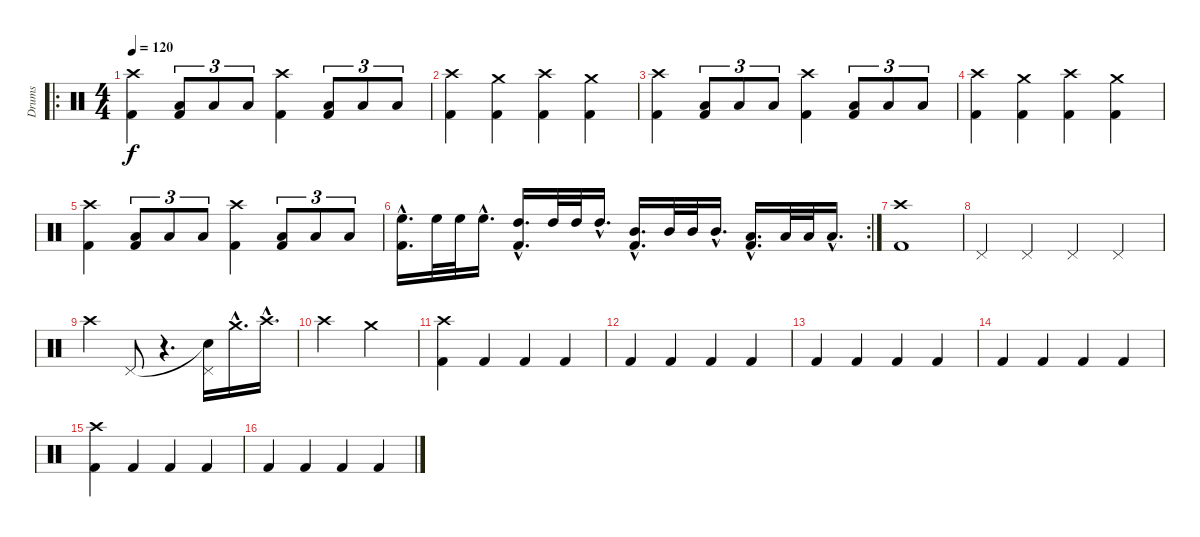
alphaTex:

\track ("Drums" "Drums") {instrument percussion}
\staff {score}
\articulation defaults
\ro
\ts (4 4)
\tempo 120
\clef neutral
\ks c
("Crash high (hit)" "Kick (hit) 2").4{dy f} ("Low Floor Tom (hit)" "Kick (hit) 2").8{tu (3 2)} "Low Floor Tom (hit)".8{tu (3 2)} "Low Floor Tom (hit)".8{tu (3 2)} ("Crash high (hit)" "Kick (hit) 2").4 ("Low Floor Tom (hit)" "Kick (hit) 2").8{tu (3 2)} "Low Floor Tom (hit)".8{tu (3 2)} "Low Floor Tom (hit)".8{tu (3 2)} |
("Crash high (hit)" "Kick (hit) 2").4 ("Crash medium (hit)" "Kick (hit) 2").4 ("Crash high (hit)" "Kick (hit) 2").4 ("Crash medium (hit)" "Kick (hit) 2").4 |
("Crash high (hit)" "Kick (hit) 2").4 ("Low Floor Tom (hit)" "Kick (hit) 2").8{tu (3 2)} "Low Floor Tom (hit)".8{tu (3 2)} "Low Floor Tom (hit)".8{tu (3 2)} ("Crash high (hit)" "Kick (hit) 2").4 ("Low Floor Tom (hit)" "Kick (hit) 2").8{tu (3 2)} "Low Floor Tom (hit)".8{tu (3 2)} "Low Floor Tom (hit)".8{tu (3 2)} |
("Crash high (hit)" "Kick (hit) 2").4 ("Crash medium (hit)" "Kick (hit) 2").4 ("Crash high (hit)" "Kick (hit) 2").4 ("Crash medium (hit)" "Kick (hit) 2").4 |
("Crash high (hit)" "Kick (hit) 2").4 ("Low Floor Tom (hit)" "Kick (hit) 2").8{tu (3 2)} "Low Floor Tom (hit)".8{tu (3 2)} "Low Floor Tom (hit)".8{tu (3 2)} ("Crash high (hit)" "Kick (hit) 2").4 ("Low Floor Tom (hit)" "Kick (hit) 2").8{tu (3 2)} "Low Floor Tom (hit)".8{tu (3 2)} "Low Floor Tom (hit)".8{tu (3 2)} |
\rc 2
("High Floor Tom (hit)"{hac} "Kick (hit) 2"{hac}).16{d} "High Floor Tom (hit)".32 "High Floor Tom (hit)".32 "High Floor Tom (hit)"{hac}.16{d} ("High Tom (hit)"{hac} "Kick (hit) 2"{hac}).16{d} "High Tom (hit)".32 "High Tom (hit)".32 "High Tom (hit)"{hac}.16{d} ("Mid Tom (hit)"{hac} "Kick (hit) 2"{hac}).16{d} "Mid Tom (hit)".32 "Mid Tom (hit)".32 "Mid Tom (hit)"{hac}.16{d} ("Low Tom (hit)"{hac} "Kick (hit) 2"{hac}).16{d} "Low Tom (hit)".32 "Low Tom (hit)".32 "Low Tom (hit)"{hac}.16{d} |
("Crash high (hit)" "Kick (hit) 2").1 |
"Pedal Hi-Hat (hit)".4 "Pedal Hi-Hat (hit)".4 "Pedal Hi-Hat (hit)".4 "Pedal Hi-Hat (hit)".4 |
"Crash high (hit)".4 "Pedal Hi-Hat (hit)".8 r.4{d} ("Snare (hit)"{t} "Pedal Hi-Hat (hit)").16 "Crash medium (hit)"{hac}.16{d} "Crash high (hit)"{hac}.16{d} |
"Crash high (hit)".2 "Crash medium (hit)".2 |
("Crash high (hit)" "Kick (hit) 2").4 "Kick (hit) 2".4 "Kick (hit) 2".4 "Kick (hit) 2".4 |
"Kick (hit) 2".4 "Kick (hit) 2".4 "Kick (hit) 2".4 "Kick (hit) 2".4 |
"Kick (hit) 2".4 "Kick (hit) 2".4 "Kick (hit) 2".4 "Kick (hit) 2".4 |
"Kick (hit) 2".4 "Kick (hit) 2".4 "Kick (hit) 2".4 "Kick (hit) 2".4 |
("Crash high (hit)" "Kick (hit) 2").4 "Kick (hit) 2".4 "Kick (hit) 2".4 "Kick (hit) 2".4 |
"Kick (hit) 2".4 "Kick (hit) 2".4 "Kick (hit) 2".4 "Kick (hit) 2".4
